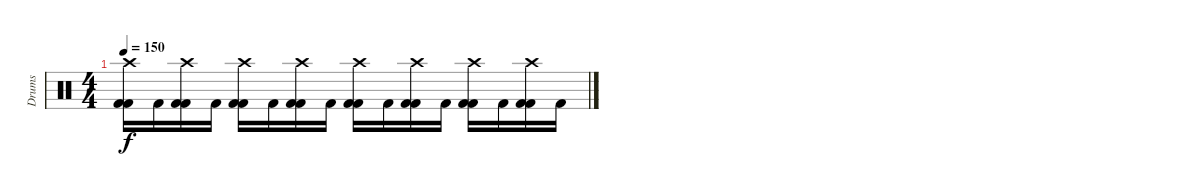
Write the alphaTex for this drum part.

\track ("Drums" "Drums") {instrument percussion}
\staff {score}
\articulation defaults
\ts (4 4)
\tempo 150
\clef neutral
\ks c
("Crash high (hit)" "Kick (hit) 2" "Kick (hit) 2").16{dy f} "Kick (hit) 2".16 ("Kick (hit) 2" "Kick (hit) 2" "Crash high (hit)").16 "Kick (hit) 2".16 ("Crash high (hit)" "Kick (hit) 2" "Kick (hit) 2").16 "Kick (hit) 2".16 ("Kick (hit) 2" "Kick (hit) 2" "Crash high (hit)").16 "Kick (hit) 2".16 ("Crash high (hit)" "Kick (hit) 2" "Kick (hit) 2").16 "Kick (hit) 2".16 ("Kick (hit) 2" "Kick (hit) 2" "Crash high (hit)").16 "Kick (hit) 2".16 ("Kick (hit) 2" "Crash high (hit)" "Kick (hit) 2").16 "Kick (hit) 2".16 ("Crash high (hit)" "Kick (hit) 2" "Kick (hit) 2").16 "Kick (hit) 2".16
